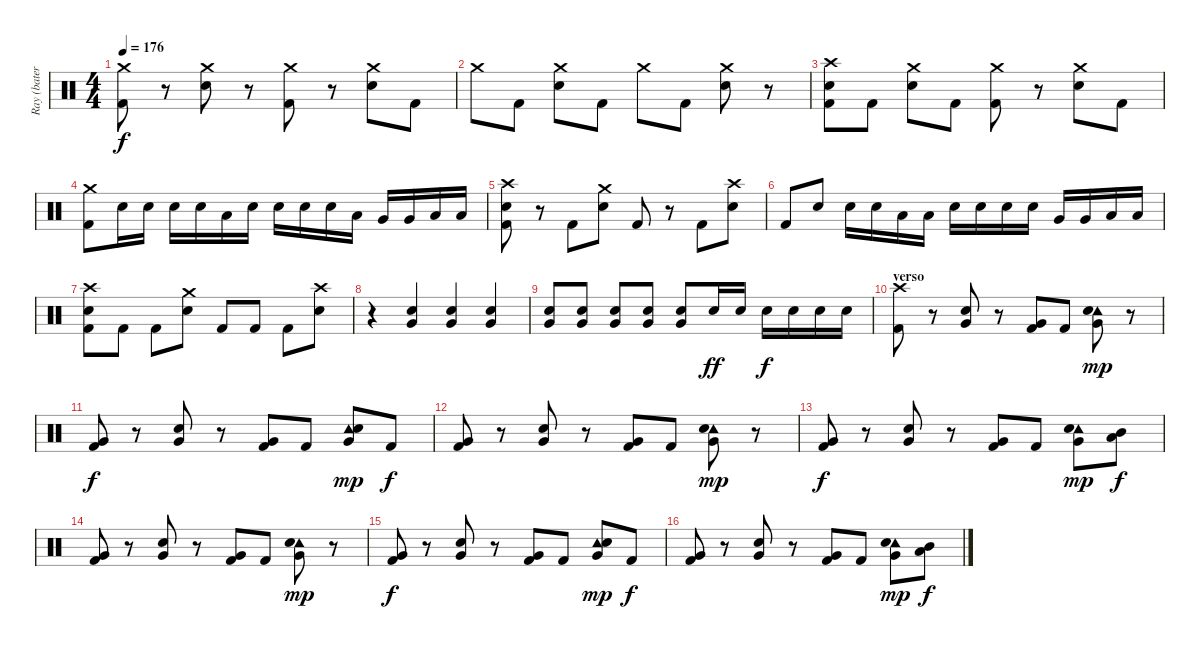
\track ("Ray (batería)" "Ray (bater") {instrument percussion}
\staff {score}
\articulation defaults
\ts (4 4)
\tempo 176
\clef neutral
\ks c
("Crash medium (hit)" "Kick (hit) 2").8{dy f} r.8 ("Crash medium (hit)" "Snare (hit) 2").8 r.8 ("Crash medium (hit)" "Kick (hit) 2").8 r.8 ("Crash medium (hit)" "Snare (hit) 2").8 "Kick (hit) 2".8 |
"Crash medium (hit)".8 "Kick (hit) 2".8 ("Crash medium (hit)" "Snare (hit) 2").8 "Kick (hit) 2".8 "Crash medium (hit)".8 "Kick (hit) 2".8 ("Crash medium (hit)" "Snare (hit) 2").8 r.8 |
("Crash high (hit)" "Snare (hit) 2" "Kick (hit) 2").8 "Kick (hit) 2".8 ("Crash medium (hit)" "Snare (hit) 2").8 "Kick (hit) 2".8 ("Crash medium (hit)" "Kick (hit) 2").8 r.8 ("Crash medium (hit)" "Snare (hit) 2").8 "Kick (hit) 2".8 |
("Crash medium (hit)" "Kick (hit) 2").8 "Snare (hit) 2".16 "Snare (hit) 2".16 "Snare (hit) 2".16 "Snare (hit) 2".16 "Low Tom (hit)".16 "Snare (hit) 2".16 "Snare (hit) 2".16 "Snare (hit) 2".16 "Snare (hit) 2".16 "Low Tom (hit)".16 "Very Low Tom (hit)".16 "Very Low Tom (hit)".16 "Low Floor Tom (hit)".16 "Low Floor Tom (hit)".16 |
\section ("" "")
("Crash high (hit)" "Snare (hit) 2" "Kick (hit) 2").8 r.8 "Kick (hit) 2".8 ("Crash medium (hit)" "Snare (hit) 2").8 "Kick (hit) 2".8 r.8 "Kick (hit) 2".8 ("Crash high (hit)" "Snare (hit) 2").8 |
"Kick (hit) 2".8 "Snare (hit) 2".8 "Snare (hit) 2".16 "Snare (hit) 2".16 "Low Tom (hit)".16 "Low Tom (hit)".16 "Snare (hit) 2".16 "Snare (hit) 2".16 "Snare (hit) 2".16 "Snare (hit) 2".16 "Very Low Tom (hit)".16 "Very Low Tom (hit)".16 "Low Floor Tom (hit)".16 "Low Floor Tom (hit)".16 |
("Crash high (hit)" "Snare (hit) 2" "Kick (hit) 2").8 "Kick (hit) 2".8 "Kick (hit) 2".8 ("Crash medium (hit)" "Snare (hit) 2").8 "Kick (hit) 2".8 "Kick (hit) 2".8 "Kick (hit) 2".8 ("Crash high (hit)" "Snare (hit) 2").8 |
r.4 ("Snare (hit) 2" "Very Low Tom (hit)").4 ("Snare (hit) 2" "Very Low Tom (hit)").4 ("Snare (hit) 2" "Very Low Tom (hit)").4 |
("Snare (hit) 2" "Very Low Tom (hit)").8 ("Snare (hit) 2" "Very Low Tom (hit)").8 ("Snare (hit) 2" "Very Low Tom (hit)").8 ("Snare (hit) 2" "Very Low Tom (hit)").8 ("Snare (hit) 2" "Very Low Tom (hit)").8 "Snare (hit) 2".16{dy ff} "Snare (hit) 2".16 "Snare (hit) 2".16{dy f} "Snare (hit) 2".16 "Snare (hit) 2".16 "Snare (hit) 2".16 |
\section ("" "verso")
("Crash high (hit)" "Kick (hit) 2").8 r.8 ("Snare (hit) 2" "Very Low Tom (hit)").8 r.8 ("Very Low Tom (hit)" "Kick (hit) 2").8 "Kick (hit) 2".8 ("Tambourine (hit)" "Snare (hit) 2" "Very Low Tom (hit)").8{dy mp} r.8 |
("Very Low Tom (hit)" "Kick (hit) 2").8{dy f} r.8 ("Snare (hit) 2" "Very Low Tom (hit)").8 r.8 ("Very Low Tom (hit)" "Kick (hit) 2").8 "Kick (hit) 2".8 ("Tambourine (hit)" "Snare (hit) 2" "Very Low Tom (hit)").8{dy mp} "Kick (hit) 2".8{dy f} |
("Very Low Tom (hit)" "Kick (hit) 2").8 r.8 ("Snare (hit) 2" "Very Low Tom (hit)").8 r.8 ("Very Low Tom (hit)" "Kick (hit) 2").8 "Kick (hit) 2".8 ("Tambourine (hit)" "Snare (hit) 2" "Very Low Tom (hit)").8{dy mp} r.8 |
("Very Low Tom (hit)" "Kick (hit) 2").8{dy f} r.8 ("Snare (hit) 2" "Very Low Tom (hit)").8 r.8 ("Very Low Tom (hit)" "Kick (hit) 2").8 "Kick (hit) 2".8 ("Tambourine (hit)" "Snare (hit) 2" "Very Low Tom (hit)").8{dy mp} ("Mid Tom (hit)" "Low Tom (hit)").8{dy f} |
("Very Low Tom (hit)" "Kick (hit) 2").8 r.8 ("Snare (hit) 2" "Very Low Tom (hit)").8 r.8 ("Very Low Tom (hit)" "Kick (hit) 2").8 "Kick (hit) 2".8 ("Tambourine (hit)" "Snare (hit) 2" "Very Low Tom (hit)").8{dy mp} r.8 |
("Very Low Tom (hit)" "Kick (hit) 2").8{dy f} r.8 ("Snare (hit) 2" "Very Low Tom (hit)").8 r.8 ("Very Low Tom (hit)" "Kick (hit) 2").8 "Kick (hit) 2".8 ("Tambourine (hit)" "Snare (hit) 2" "Very Low Tom (hit)").8{dy mp} "Kick (hit) 2".8{dy f} |
("Very Low Tom (hit)" "Kick (hit) 2").8 r.8 ("Snare (hit) 2" "Very Low Tom (hit)").8 r.8 ("Very Low Tom (hit)" "Kick (hit) 2").8 "Kick (hit) 2".8 ("Tambourine (hit)" "Snare (hit) 2" "Very Low Tom (hit)").8{dy mp} ("Mid Tom (hit)" "Low Tom (hit)").8{dy f}
